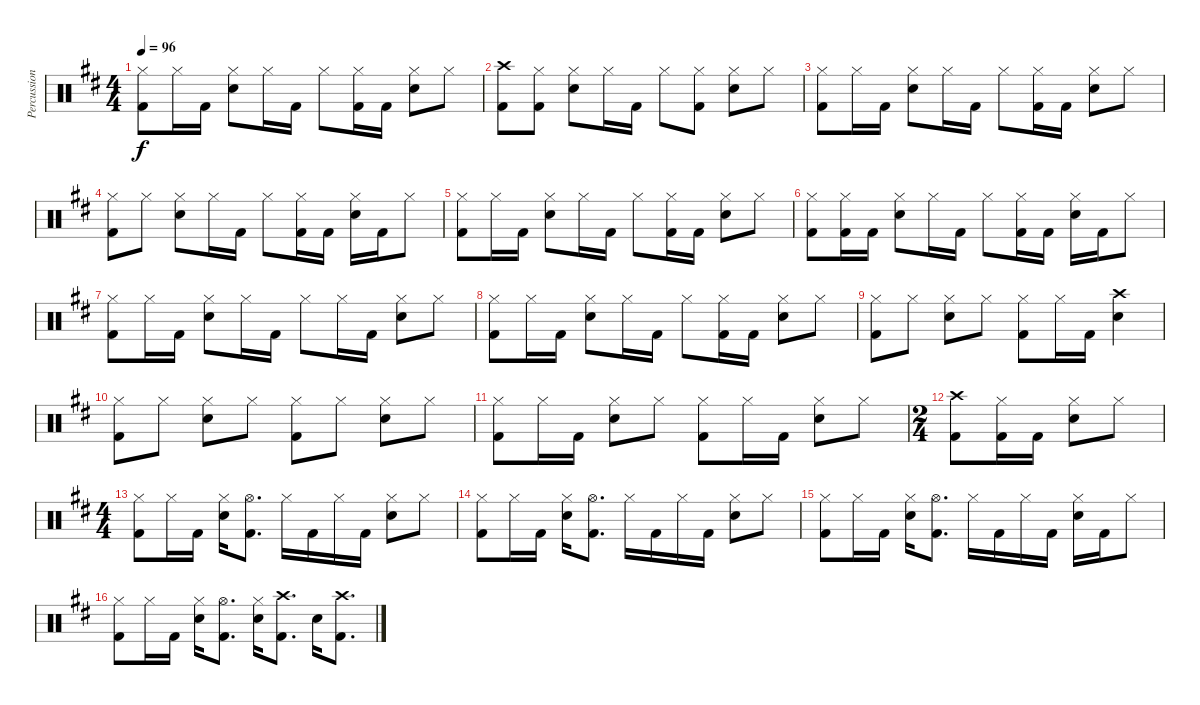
\track ("Percussion" "Percussion") {instrument percussion}
\staff {score}
\articulation defaults
\ts (4 4)
\tempo 96
\clef neutral
\ks d
("Hi-Hat (closed)" "Kick (hit) 2").8{dy f} "Hi-Hat (closed)".16 "Kick (hit) 2".16 ("Hi-Hat (closed)" "Electric Snare (hit)").8 "Hi-Hat (closed)".16 "Kick (hit) 2".16 "Hi-Hat (closed)".8 ("Hi-Hat (closed)" "Kick (hit) 2").16 "Kick (hit) 2".16 ("Hi-Hat (closed)" "Electric Snare (hit)").8 "Hi-Hat (closed)".8 |
("Crash high (hit)" "Kick (hit) 2").8 ("Hi-Hat (closed)" "Kick (hit) 2").8 ("Hi-Hat (closed)" "Electric Snare (hit)").8 "Hi-Hat (closed)".16 "Kick (hit) 2".16 "Hi-Hat (closed)".8 ("Hi-Hat (closed)" "Kick (hit) 2").8 ("Hi-Hat (closed)" "Electric Snare (hit)").8 "Hi-Hat (closed)".8 |
("Hi-Hat (closed)" "Kick (hit) 2").8 "Hi-Hat (closed)".16 "Kick (hit) 2".16 ("Hi-Hat (closed)" "Electric Snare (hit)").8 "Hi-Hat (closed)".16 "Kick (hit) 2".16 "Hi-Hat (closed)".8 ("Hi-Hat (closed)" "Kick (hit) 2").16 "Kick (hit) 2".16 ("Hi-Hat (closed)" "Electric Snare (hit)").8 "Hi-Hat (closed)".8 |
("Hi-Hat (closed)" "Kick (hit) 2").8 "Hi-Hat (closed)".8 ("Hi-Hat (closed)" "Electric Snare (hit)").8 "Hi-Hat (closed)".16 "Kick (hit) 2".16 "Hi-Hat (closed)".8 ("Hi-Hat (closed)" "Kick (hit) 2").16 "Kick (hit) 2".16 ("Hi-Hat (closed)" "Electric Snare (hit)").16 "Kick (hit) 2".16 "Hi-Hat (closed)".8 |
("Hi-Hat (closed)" "Kick (hit) 2").8 "Hi-Hat (closed)".16 "Kick (hit) 2".16 ("Hi-Hat (closed)" "Electric Snare (hit)").8 "Hi-Hat (closed)".16 "Kick (hit) 2".16 "Hi-Hat (closed)".8 ("Hi-Hat (closed)" "Kick (hit) 2").16 "Kick (hit) 2".16 ("Hi-Hat (closed)" "Electric Snare (hit)").8 "Hi-Hat (closed)".8 |
("Hi-Hat (closed)" "Kick (hit) 2").8 ("Hi-Hat (closed)" "Kick (hit) 2").16 "Kick (hit) 2".16 ("Hi-Hat (closed)" "Electric Snare (hit)").8 "Hi-Hat (closed)".16 "Kick (hit) 2".16 "Hi-Hat (closed)".8 ("Hi-Hat (closed)" "Kick (hit) 2").16 "Kick (hit) 2".16 ("Hi-Hat (closed)" "Electric Snare (hit)").16 "Kick (hit) 2".16 "Hi-Hat (closed)".8 |
("Hi-Hat (closed)" "Kick (hit) 2").8 "Hi-Hat (closed)".16 "Kick (hit) 2".16 ("Hi-Hat (closed)" "Electric Snare (hit)").8 "Hi-Hat (closed)".16 "Kick (hit) 2".16 "Hi-Hat (closed)".8 "Hi-Hat (closed)".16 "Kick (hit) 2".16 ("Hi-Hat (closed)" "Electric Snare (hit)").8 "Hi-Hat (closed)".8 |
("Hi-Hat (closed)" "Kick (hit) 2").8 "Hi-Hat (closed)".16 "Kick (hit) 2".16 ("Hi-Hat (closed)" "Electric Snare (hit)").8 "Hi-Hat (closed)".16 "Kick (hit) 2".16 "Hi-Hat (closed)".8 ("Hi-Hat (closed)" "Kick (hit) 2").16 "Kick (hit) 2".16 ("Hi-Hat (closed)" "Electric Snare (hit)").8 "Hi-Hat (closed)".8 |
("Hi-Hat (closed)" "Kick (hit) 2").8 "Hi-Hat (closed)".8 ("Hi-Hat (closed)" "Electric Snare (hit)").8 "Hi-Hat (closed)".8 ("Hi-Hat (closed)" "Kick (hit) 2").8 "Hi-Hat (closed)".16 "Kick (hit) 2".16 ("Crash high (hit)" "Electric Snare (hit)").4 |
("Hi-Hat (closed)" "Kick (hit) 2").8 "Hi-Hat (closed)".8 ("Hi-Hat (closed)" "Electric Snare (hit)").8 "Hi-Hat (closed)".8 ("Hi-Hat (closed)" "Kick (hit) 2").8 "Hi-Hat (closed)".8 ("Hi-Hat (closed)" "Electric Snare (hit)").8 "Hi-Hat (closed)".8 |
("Hi-Hat (closed)" "Kick (hit) 2").8 "Hi-Hat (closed)".16 "Kick (hit) 2".16 ("Hi-Hat (closed)" "Electric Snare (hit)").8 "Hi-Hat (closed)".8 ("Hi-Hat (closed)" "Kick (hit) 2").8 "Hi-Hat (closed)".16 "Kick (hit) 2".16 ("Hi-Hat (closed)" "Electric Snare (hit)").8 "Hi-Hat (closed)".8 |
\ts (2 4)
("Crash high (hit)" "Kick (hit) 2").8 ("Hi-Hat (closed)" "Kick (hit) 2").16 "Kick (hit) 2".16 ("Hi-Hat (closed)" "Electric Snare (hit)").8 "Hi-Hat (closed)".8 |
\ts (4 4)
("Hi-Hat (closed)" "Kick (hit) 2").8 "Hi-Hat (closed)".16 "Kick (hit) 2".16 ("Hi-Hat (closed)" "Electric Snare (hit)").16 ("Hi-Hat (open)" "Kick (hit) 2").8{d} "Hi-Hat (closed)".16 "Kick (hit) 2".16 "Hi-Hat (closed)".16 "Kick (hit) 2".16 ("Hi-Hat (closed)" "Electric Snare (hit)").8 "Hi-Hat (closed)".8 |
("Hi-Hat (closed)" "Kick (hit) 2").8 "Hi-Hat (closed)".16 "Kick (hit) 2".16 ("Hi-Hat (closed)" "Electric Snare (hit)").16 ("Hi-Hat (open)" "Kick (hit) 2").8{d} "Hi-Hat (closed)".16 "Kick (hit) 2".16 "Hi-Hat (closed)".16 "Kick (hit) 2".16 ("Hi-Hat (closed)" "Electric Snare (hit)").8 "Hi-Hat (closed)".8 |
("Hi-Hat (closed)" "Kick (hit) 2").8 "Hi-Hat (closed)".16 "Kick (hit) 2".16 ("Hi-Hat (closed)" "Electric Snare (hit)").16 ("Hi-Hat (open)" "Kick (hit) 2").8{d} "Hi-Hat (closed)".16 "Kick (hit) 2".16 "Hi-Hat (closed)".16 "Kick (hit) 2".16 ("Hi-Hat (closed)" "Electric Snare (hit)").16 "Kick (hit) 2".16 "Hi-Hat (closed)".8 |
("Hi-Hat (closed)" "Kick (hit) 2").8 "Hi-Hat (closed)".16 "Kick (hit) 2".16 ("Hi-Hat (closed)" "Electric Snare (hit)").16 ("Hi-Hat (open)" "Kick (hit) 2").8{d} ("Hi-Hat (closed)" "Electric Snare (hit)").16 ("Crash high (hit)" "Kick (hit) 2").8{d} "Electric Snare (hit)".16 ("Crash high (hit)" "Kick (hit) 2").8{d}
